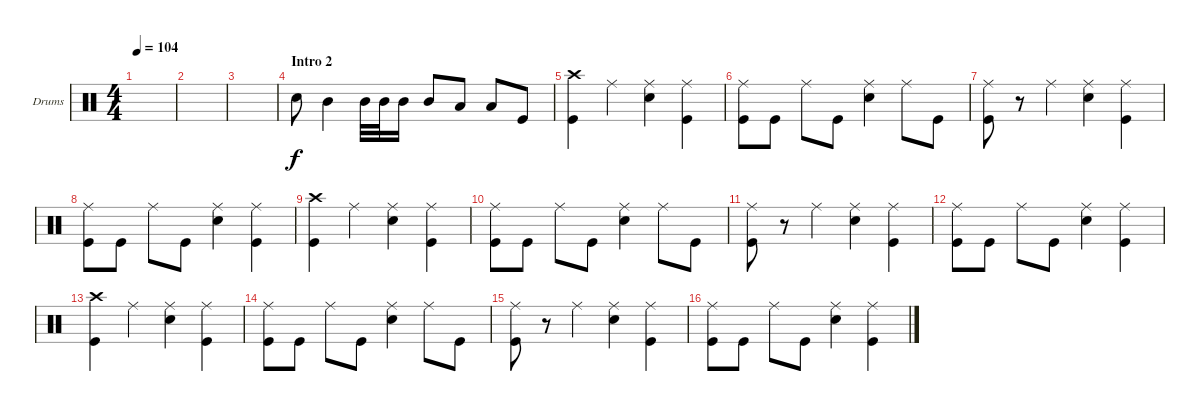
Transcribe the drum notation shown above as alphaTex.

\defaultSystemsLayout 4
\bracketExtendMode groupsimilarinstruments
\firstSystemTrackNameOrientation horizontal
\otherSystemsTrackNameOrientation horizontal
\track ("Jimmy \"The Hammer\" - Drums" "Drums") {instrument percussion}
\staff {score}
\articulation defaults
\ts (4 4)
\tempo 104
\clef neutral
\scale
0.333333
\ks c
|
\scale
0.333333 |
\scale
0.333333 |
\section ("" "Intro 2")
\scale
0.333333 "Snare (hit) 2".8 "Mid Tom (hit)".4 "Mid Tom (hit)".32 "Mid Tom (hit)".32 "Mid Tom (hit)".16 "Mid Tom (hit)".8 "Low Tom (hit)".8 "Low Tom (hit)".8 "Kick (hit)".8 |
\scale
0.333333 ("Kick (hit)" "Crash high (hit)").4 "Ride (middle)".4 ("Ride (middle)" "Snare (hit) 2").4 ("Ride (middle)" "Kick (hit)").4 |
\scale
0.333333 ("Ride (middle)" "Kick (hit)").8 "Kick (hit)".8 "Ride (middle)".8 "Kick (hit)".8 ("Ride (middle)" "Snare (hit) 2").4 "Ride (middle)".8 "Kick (hit)".8 |
\scale
0.333333 ("Ride (middle)" "Kick (hit)").8 r.8 "Ride (middle)".4 ("Ride (middle)" "Snare (hit) 2").4 ("Ride (middle)" "Kick (hit)").4 |
\scale
0.333333 ("Ride (middle)" "Kick (hit)").8 "Kick (hit)".8 "Ride (middle)".8 "Kick (hit)".8 ("Snare (hit) 2" "Ride (middle)").4 ("Ride (middle)" "Kick (hit)").4 |
\scale
0.333333 ("Kick (hit)" "Crash high (hit)").4 "Ride (middle)".4 ("Ride (middle)" "Snare (hit) 2").4 ("Ride (middle)" "Kick (hit)").4 |
\scale
0.333333 ("Ride (middle)" "Kick (hit)").8 "Kick (hit)".8 "Ride (middle)".8 "Kick (hit)".8 ("Ride (middle)" "Snare (hit) 2").4 "Ride (middle)".8 "Kick (hit)".8 |
\scale
0.333333 ("Ride (middle)" "Kick (hit)").8 r.8 "Ride (middle)".4 ("Ride (middle)" "Snare (hit) 2").4 ("Ride (middle)" "Kick (hit)").4 |
\scale
0.333333 ("Ride (middle)" "Kick (hit)").8 "Kick (hit)".8 "Ride (middle)".8 "Kick (hit)".8 ("Snare (hit) 2" "Ride (middle)").4 ("Ride (middle)" "Kick (hit)").4 |
\scale
0.333333 ("Kick (hit)" "Crash high (hit)").4 "Ride (middle)".4 ("Ride (middle)" "Snare (hit) 2").4 ("Ride (middle)" "Kick (hit)").4 |
\scale
0.333333 ("Ride (middle)" "Kick (hit)").8 "Kick (hit)".8 "Ride (middle)".8 "Kick (hit)".8 ("Ride (middle)" "Snare (hit) 2").4 "Ride (middle)".8 "Kick (hit)".8 |
\scale
0.333333 ("Ride (middle)" "Kick (hit)").8 r.8 "Ride (middle)".4 ("Ride (middle)" "Snare (hit) 2").4 ("Ride (middle)" "Kick (hit)").4 |
\scale
0.333333 ("Ride (middle)" "Kick (hit)").8 "Kick (hit)".8 "Ride (middle)".8 "Kick (hit)".8 ("Snare (hit) 2" "Ride (middle)").4 ("Ride (middle)" "Kick (hit)").4
